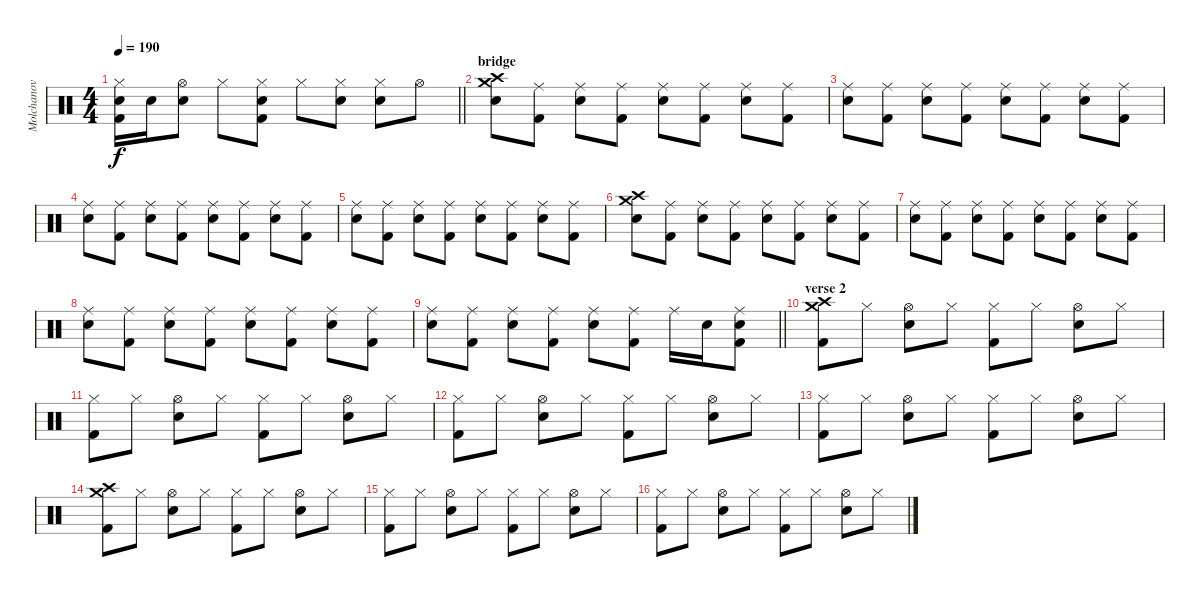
\track ("Molchanov" "Molchanov") {instrument percussion}
\staff {score}
\articulation defaults
\ts (4 4)
\tempo 190
\clef neutral
\barLineRight lightlight
\ks c
("Hi-Hat (closed)" "Snare (hit) 2" "Kick (hit) 2").16{dy f} "Snare (hit) 2".16 ("Hi-Hat (open)" "Snare (hit) 2").8 "Hi-Hat (closed)".8 ("Hi-Hat (closed)" "Snare (hit) 2" "Kick (hit) 2").8 "Hi-Hat (closed)".8 ("Hi-Hat (closed)" "Snare (hit) 2").8 ("Hi-Hat (closed)" "Snare (hit) 2").8 "Hi-Hat (open)".8 |
\section ("" "bridge")
("Crash high (hit)" "Snare (hit) 2" "Crash medium (hit)").8 ("Ride (middle)" "Kick (hit) 2").8 ("Ride (middle)" "Snare (hit) 2").8 ("Ride (middle)" "Kick (hit) 2").8 ("Ride (middle)" "Snare (hit) 2").8 ("Ride (middle)" "Kick (hit) 2").8 ("Ride (middle)" "Snare (hit) 2").8 ("Ride (middle)" "Kick (hit) 2").8 |
("Ride (middle)" "Snare (hit) 2").8 ("Ride (middle)" "Kick (hit) 2").8 ("Ride (middle)" "Snare (hit) 2").8 ("Ride (middle)" "Kick (hit) 2").8 ("Ride (middle)" "Snare (hit) 2").8 ("Ride (middle)" "Kick (hit) 2").8 ("Ride (middle)" "Snare (hit) 2").8 ("Ride (middle)" "Kick (hit) 2").8 |
("Ride (middle)" "Snare (hit) 2").8 ("Ride (middle)" "Kick (hit) 2").8 ("Ride (middle)" "Snare (hit) 2").8 ("Ride (middle)" "Kick (hit) 2").8 ("Ride (middle)" "Snare (hit) 2").8 ("Ride (middle)" "Kick (hit) 2").8 ("Ride (middle)" "Snare (hit) 2").8 ("Ride (middle)" "Kick (hit) 2").8 |
("Ride (middle)" "Snare (hit) 2").8 ("Ride (middle)" "Kick (hit) 2").8 ("Ride (middle)" "Snare (hit) 2").8 ("Ride (middle)" "Kick (hit) 2").8 ("Ride (middle)" "Snare (hit) 2").8 ("Ride (middle)" "Kick (hit) 2").8 ("Ride (middle)" "Snare (hit) 2").8 ("Ride (middle)" "Kick (hit) 2").8 |
("Crash high (hit)" "Snare (hit) 2" "Crash medium (hit)").8 ("Ride (middle)" "Kick (hit) 2").8 ("Ride (middle)" "Snare (hit) 2").8 ("Ride (middle)" "Kick (hit) 2").8 ("Ride (middle)" "Snare (hit) 2").8 ("Ride (middle)" "Kick (hit) 2").8 ("Ride (middle)" "Snare (hit) 2").8 ("Ride (middle)" "Kick (hit) 2").8 |
("Ride (middle)" "Snare (hit) 2").8 ("Ride (middle)" "Kick (hit) 2").8 ("Ride (middle)" "Snare (hit) 2").8 ("Ride (middle)" "Kick (hit) 2").8 ("Ride (middle)" "Snare (hit) 2").8 ("Ride (middle)" "Kick (hit) 2").8 ("Ride (middle)" "Snare (hit) 2").8 ("Ride (middle)" "Kick (hit) 2").8 |
("Ride (middle)" "Snare (hit) 2").8 ("Ride (middle)" "Kick (hit) 2").8 ("Ride (middle)" "Snare (hit) 2").8 ("Ride (middle)" "Kick (hit) 2").8 ("Ride (middle)" "Snare (hit) 2").8 ("Ride (middle)" "Kick (hit) 2").8 ("Ride (middle)" "Snare (hit) 2").8 ("Ride (middle)" "Kick (hit) 2").8 |
\barLineRight lightlight
("Ride (middle)" "Snare (hit) 2").8 ("Ride (middle)" "Kick (hit) 2").8 ("Ride (middle)" "Snare (hit) 2").8 ("Ride (middle)" "Kick (hit) 2").8 ("Ride (middle)" "Snare (hit) 2").8 ("Ride (middle)" "Kick (hit) 2").8 "Ride (middle)".16 "Snare (hit) 2".16 ("Ride (middle)" "Snare (hit) 2" "Kick (hit) 2").8 |
\section ("" "verse 2")
("Crash high (hit)" "Crash medium (hit)" "Kick (hit) 2").8 "Hi-Hat (closed)".8 ("Hi-Hat (open)" "Snare (hit) 2").8 "Hi-Hat (closed)".8 ("Hi-Hat (closed)" "Kick (hit) 2").8 "Hi-Hat (closed)".8 ("Hi-Hat (open)" "Snare (hit) 2").8 "Hi-Hat (closed)".8 |
("Hi-Hat (closed)" "Kick (hit) 2").8 "Hi-Hat (closed)".8 ("Hi-Hat (open)" "Snare (hit) 2").8 "Hi-Hat (closed)".8 ("Hi-Hat (closed)" "Kick (hit) 2").8 "Hi-Hat (closed)".8 ("Hi-Hat (open)" "Snare (hit) 2").8 "Hi-Hat (closed)".8 |
("Hi-Hat (closed)" "Kick (hit) 2").8 "Hi-Hat (closed)".8 ("Hi-Hat (open)" "Snare (hit) 2").8 "Hi-Hat (closed)".8 ("Hi-Hat (closed)" "Kick (hit) 2").8 "Hi-Hat (closed)".8 ("Hi-Hat (open)" "Snare (hit) 2").8 "Hi-Hat (closed)".8 |
("Hi-Hat (closed)" "Kick (hit) 2").8 "Hi-Hat (closed)".8 ("Hi-Hat (open)" "Snare (hit) 2").8 "Hi-Hat (closed)".8 ("Hi-Hat (closed)" "Kick (hit) 2").8 "Hi-Hat (closed)".8 ("Hi-Hat (open)" "Snare (hit) 2").8 "Hi-Hat (closed)".8 |
("Crash high (hit)" "Crash medium (hit)" "Kick (hit) 2").8 "Hi-Hat (closed)".8 ("Hi-Hat (open)" "Snare (hit) 2").8 "Hi-Hat (closed)".8 ("Hi-Hat (closed)" "Kick (hit) 2").8 "Hi-Hat (closed)".8 ("Hi-Hat (open)" "Snare (hit) 2").8 "Hi-Hat (closed)".8 |
("Hi-Hat (closed)" "Kick (hit) 2").8 "Hi-Hat (closed)".8 ("Hi-Hat (open)" "Snare (hit) 2").8 "Hi-Hat (closed)".8 ("Hi-Hat (closed)" "Kick (hit) 2").8 "Hi-Hat (closed)".8 ("Hi-Hat (open)" "Snare (hit) 2").8 "Hi-Hat (closed)".8 |
("Hi-Hat (closed)" "Kick (hit) 2").8 "Hi-Hat (closed)".8 ("Hi-Hat (open)" "Snare (hit) 2").8 "Hi-Hat (closed)".8 ("Hi-Hat (closed)" "Kick (hit) 2").8 "Hi-Hat (closed)".8 ("Hi-Hat (open)" "Snare (hit) 2").8 "Hi-Hat (closed)".8
